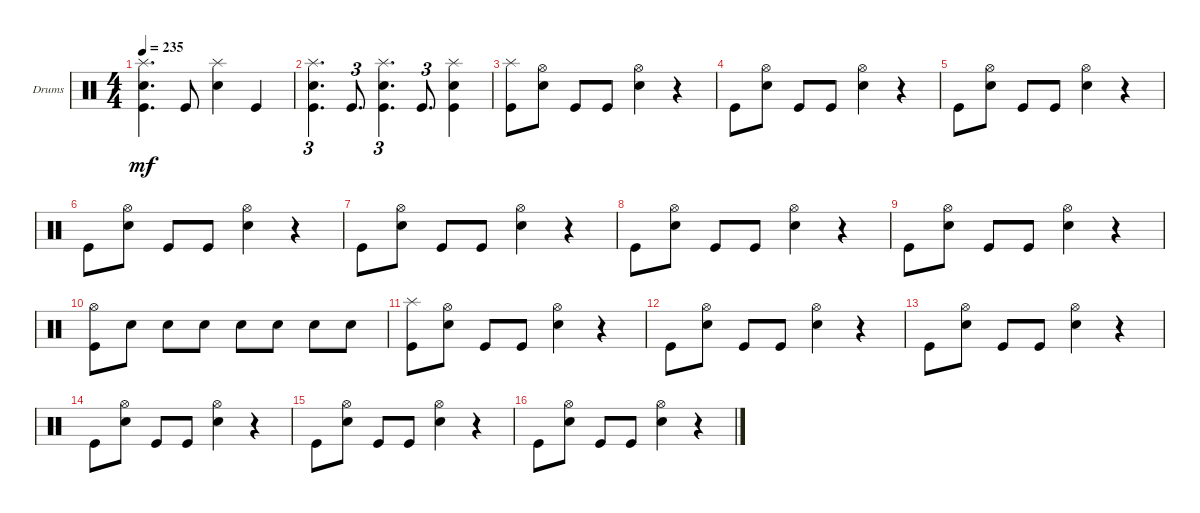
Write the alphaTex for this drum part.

\defaultSystemsLayout 4
\bracketExtendMode groupsimilarinstruments
\firstSystemTrackNameOrientation horizontal
\otherSystemsTrackNameOrientation horizontal
\track ("Drumkit" "Drums") {instrument percussion}
\staff {score}
\articulation defaults
\ts (4 4)
\tempo 235
\clef neutral
\ks c
("Kick (hit)" "Snare (hit) 2" "Splash (hit)").4{d dy mf} "Kick (hit)".8 ("Snare (hit) 2" "Splash (hit)").4 "Kick (hit)".4 |
("Splash (hit)" "Snare (hit) 2" "Kick (hit)").4{d tu (3 2)} "Kick (hit)".8{d tu (3 2)} ("Splash (hit)" "Snare (hit) 2" "Kick (hit)").4{d tu (3 2)} "Kick (hit)".8{d tu (3 2)} ("Kick (hit)" "Snare (hit) 2" "Splash (hit)").4 |
("Splash (hit)" "Kick (hit)").8 ("Snare (hit) 2" "Hi-Hat (open)").8 "Kick (hit)".8 "Kick (hit)".8 ("Snare (hit) 2" "Hi-Hat (open)").4 r.4 |
"Kick (hit)".8 ("Snare (hit) 2" "Hi-Hat (open)").8 "Kick (hit)".8 "Kick (hit)".8 ("Snare (hit) 2" "Hi-Hat (open)").4 r.4 |
"Kick (hit)".8 ("Snare (hit) 2" "Hi-Hat (open)").8 "Kick (hit)".8 "Kick (hit)".8 ("Snare (hit) 2" "Hi-Hat (open)").4 r.4 |
"Kick (hit)".8 ("Snare (hit) 2" "Hi-Hat (open)").8 "Kick (hit)".8 "Kick (hit)".8 ("Snare (hit) 2" "Hi-Hat (open)").4 r.4 |
"Kick (hit)".8 ("Snare (hit) 2" "Hi-Hat (open)").8 "Kick (hit)".8 "Kick (hit)".8 ("Snare (hit) 2" "Hi-Hat (open)").4 r.4 |
"Kick (hit)".8 ("Snare (hit) 2" "Hi-Hat (open)").8 "Kick (hit)".8 "Kick (hit)".8 ("Snare (hit) 2" "Hi-Hat (open)").4 r.4 |
"Kick (hit)".8 ("Snare (hit) 2" "Hi-Hat (open)").8 "Kick (hit)".8 "Kick (hit)".8 ("Snare (hit) 2" "Hi-Hat (open)").4 r.4 |
("Kick (hit)" "Hi-Hat (open)").8 "Snare (hit) 2".8 "Snare (hit) 2".8 "Snare (hit) 2".8 "Snare (hit) 2".8 "Snare (hit) 2".8 "Snare (hit) 2".8 "Snare (hit) 2".8 |
("Splash (hit)" "Kick (hit)").8 ("Snare (hit) 2" "Hi-Hat (open)").8 "Kick (hit)".8 "Kick (hit)".8 ("Snare (hit) 2" "Hi-Hat (open)").4 r.4 |
"Kick (hit)".8 ("Snare (hit) 2" "Hi-Hat (open)").8 "Kick (hit)".8 "Kick (hit)".8 ("Snare (hit) 2" "Hi-Hat (open)").4 r.4 |
"Kick (hit)".8 ("Snare (hit) 2" "Hi-Hat (open)").8 "Kick (hit)".8 "Kick (hit)".8 ("Snare (hit) 2" "Hi-Hat (open)").4 r.4 |
"Kick (hit)".8 ("Snare (hit) 2" "Hi-Hat (open)").8 "Kick (hit)".8 "Kick (hit)".8 ("Snare (hit) 2" "Hi-Hat (open)").4 r.4 |
"Kick (hit)".8 ("Snare (hit) 2" "Hi-Hat (open)").8 "Kick (hit)".8 "Kick (hit)".8 ("Snare (hit) 2" "Hi-Hat (open)").4 r.4 |
"Kick (hit)".8 ("Snare (hit) 2" "Hi-Hat (open)").8 "Kick (hit)".8 "Kick (hit)".8 ("Snare (hit) 2" "Hi-Hat (open)").4 r.4
